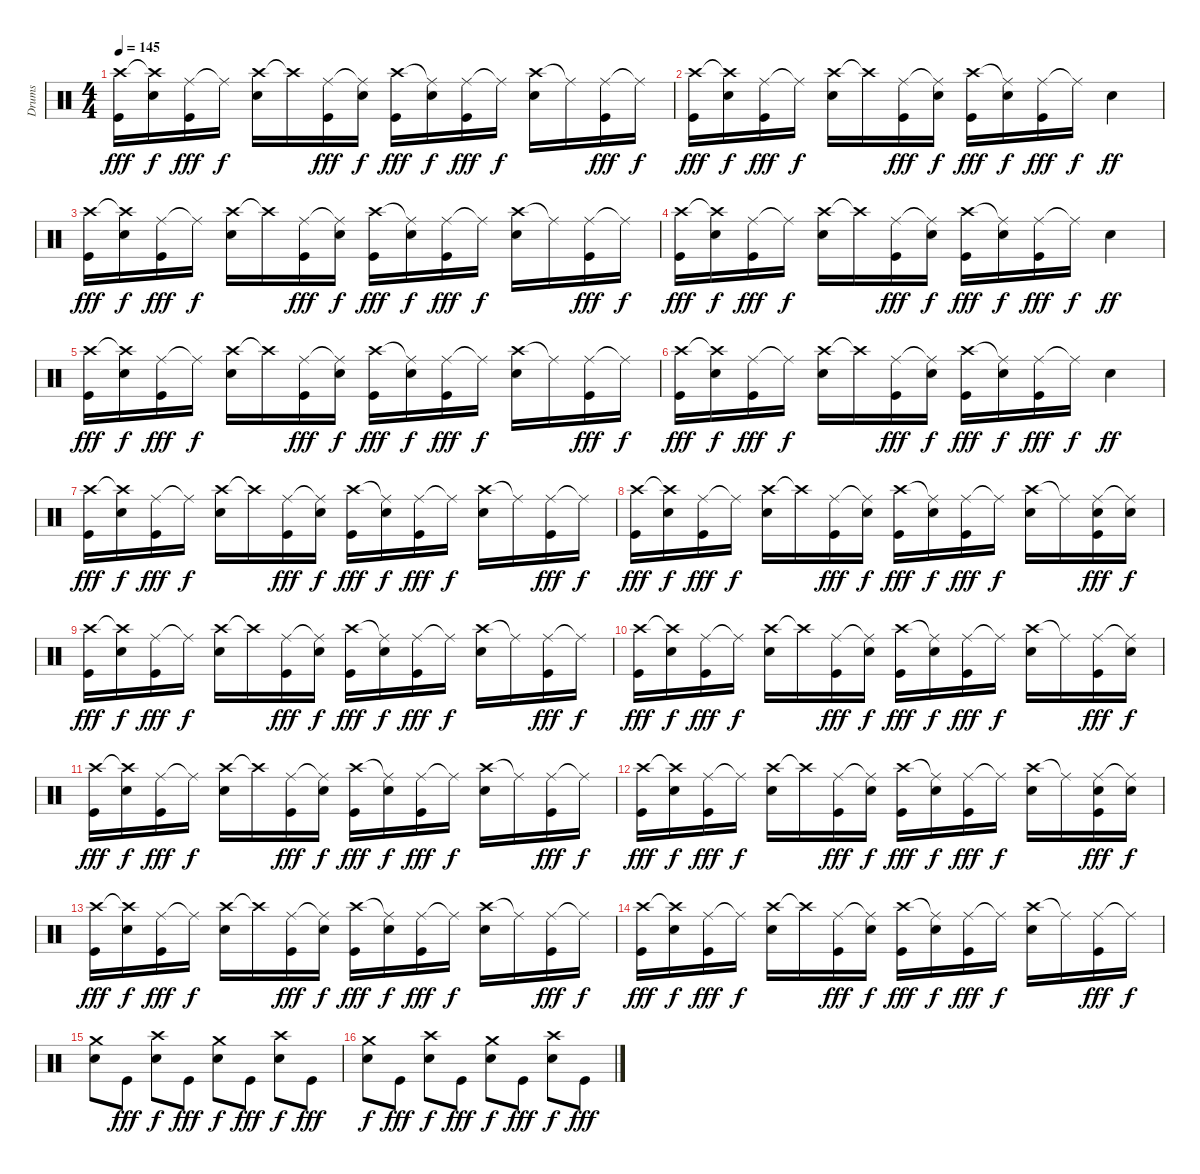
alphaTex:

\track ("Drums" "Drums") {instrument percussion}
\staff {score}
\articulation defaults
\ts (4 4)
\tempo 145
\clef neutral
\ks c
("Crash high (hit)" "Kick (hit)").16{dy fff} ("Crash high (hit)"{t} "Snare (hit) 2").16{dy f} ("Ride (middle)" "Kick (hit)").16{dy fff} "Ride (middle)"{t}.16{dy f} ("Crash high (hit)" "Snare (hit) 2").16 "Crash high (hit)"{t}.16 ("Ride (middle)" "Kick (hit)").16{dy fff} ("Ride (middle)"{t} "Snare (hit) 2").16{dy f} ("Crash high (hit)" "Kick (hit)").16{dy fff} ("Ride (middle)"{t} "Snare (hit) 2").16{dy f} ("Ride (middle)" "Kick (hit)").16{dy fff} "Ride (middle)"{t}.16{dy f} ("Crash high (hit)" "Snare (hit) 2").16 "Ride (middle)"{t}.16 ("Ride (middle)" "Kick (hit)").16{dy fff} "Ride (middle)"{t}.16{dy f} |
("Crash high (hit)" "Kick (hit)").16{dy fff} ("Crash high (hit)"{t} "Snare (hit) 2").16{dy f} ("Ride (middle)" "Kick (hit)").16{dy fff} "Ride (middle)"{t}.16{dy f} ("Crash high (hit)" "Snare (hit) 2").16 "Crash high (hit)"{t}.16 ("Ride (middle)" "Kick (hit)").16{dy fff} ("Ride (middle)"{t} "Snare (hit) 2").16{dy f} ("Crash high (hit)" "Kick (hit)").16{dy fff} ("Ride (middle)"{t} "Snare (hit) 2").16{dy f} ("Ride (middle)" "Kick (hit)").16{dy fff} "Ride (middle)"{t}.16{dy f} "Snare (hit) 2".4{dy ff} |
("Crash high (hit)" "Kick (hit)").16{dy fff} ("Crash high (hit)"{t} "Snare (hit) 2").16{dy f} ("Ride (middle)" "Kick (hit)").16{dy fff} "Ride (middle)"{t}.16{dy f} ("Crash high (hit)" "Snare (hit) 2").16 "Crash high (hit)"{t}.16 ("Ride (middle)" "Kick (hit)").16{dy fff} ("Ride (middle)"{t} "Snare (hit) 2").16{dy f} ("Crash high (hit)" "Kick (hit)").16{dy fff} ("Ride (middle)"{t} "Snare (hit) 2").16{dy f} ("Ride (middle)" "Kick (hit)").16{dy fff} "Ride (middle)"{t}.16{dy f} ("Crash high (hit)" "Snare (hit) 2").16 "Ride (middle)"{t}.16 ("Ride (middle)" "Kick (hit)").16{dy fff} "Ride (middle)"{t}.16{dy f} |
("Crash high (hit)" "Kick (hit)").16{dy fff} ("Crash high (hit)"{t} "Snare (hit) 2").16{dy f} ("Ride (middle)" "Kick (hit)").16{dy fff} "Ride (middle)"{t}.16{dy f} ("Crash high (hit)" "Snare (hit) 2").16 "Crash high (hit)"{t}.16 ("Ride (middle)" "Kick (hit)").16{dy fff} ("Ride (middle)"{t} "Snare (hit) 2").16{dy f} ("Crash high (hit)" "Kick (hit)").16{dy fff} ("Ride (middle)"{t} "Snare (hit) 2").16{dy f} ("Ride (middle)" "Kick (hit)").16{dy fff} "Ride (middle)"{t}.16{dy f} "Snare (hit) 2".4{dy ff} |
("Crash high (hit)" "Kick (hit)").16{dy fff} ("Crash high (hit)"{t} "Snare (hit) 2").16{dy f} ("Ride (middle)" "Kick (hit)").16{dy fff} "Ride (middle)"{t}.16{dy f} ("Crash high (hit)" "Snare (hit) 2").16 "Crash high (hit)"{t}.16 ("Ride (middle)" "Kick (hit)").16{dy fff} ("Ride (middle)"{t} "Snare (hit) 2").16{dy f} ("Crash high (hit)" "Kick (hit)").16{dy fff} ("Ride (middle)"{t} "Snare (hit) 2").16{dy f} ("Ride (middle)" "Kick (hit)").16{dy fff} "Ride (middle)"{t}.16{dy f} ("Crash high (hit)" "Snare (hit) 2").16 "Ride (middle)"{t}.16 ("Ride (middle)" "Kick (hit)").16{dy fff} "Ride (middle)"{t}.16{dy f} |
("Crash high (hit)" "Kick (hit)").16{dy fff} ("Crash high (hit)"{t} "Snare (hit) 2").16{dy f} ("Ride (middle)" "Kick (hit)").16{dy fff} "Ride (middle)"{t}.16{dy f} ("Crash high (hit)" "Snare (hit) 2").16 "Crash high (hit)"{t}.16 ("Ride (middle)" "Kick (hit)").16{dy fff} ("Ride (middle)"{t} "Snare (hit) 2").16{dy f} ("Crash high (hit)" "Kick (hit)").16{dy fff} ("Ride (middle)"{t} "Snare (hit) 2").16{dy f} ("Ride (middle)" "Kick (hit)").16{dy fff} "Ride (middle)"{t}.16{dy f} "Snare (hit) 2".4{dy ff} |
("Crash high (hit)" "Kick (hit)").16{dy fff} ("Crash high (hit)"{t} "Snare (hit) 2").16{dy f} ("Ride (middle)" "Kick (hit)").16{dy fff} "Ride (middle)"{t}.16{dy f} ("Crash high (hit)" "Snare (hit) 2").16 "Crash high (hit)"{t}.16 ("Ride (middle)" "Kick (hit)").16{dy fff} ("Ride (middle)"{t} "Snare (hit) 2").16{dy f} ("Crash high (hit)" "Kick (hit)").16{dy fff} ("Ride (middle)"{t} "Snare (hit) 2").16{dy f} ("Ride (middle)" "Kick (hit)").16{dy fff} "Ride (middle)"{t}.16{dy f} ("Crash high (hit)" "Snare (hit) 2").16 "Ride (middle)"{t}.16 ("Ride (middle)" "Kick (hit)").16{dy fff} "Ride (middle)"{t}.16{dy f} |
("Crash high (hit)" "Kick (hit)").16{dy fff} ("Crash high (hit)"{t} "Snare (hit) 2").16{dy f} ("Ride (middle)" "Kick (hit)").16{dy fff} "Ride (middle)"{t}.16{dy f} ("Crash high (hit)" "Snare (hit) 2").16 "Crash high (hit)"{t}.16 ("Ride (middle)" "Kick (hit)").16{dy fff} ("Ride (middle)"{t} "Snare (hit) 2").16{dy f} ("Crash high (hit)" "Kick (hit)").16{dy fff} ("Ride (middle)"{t} "Snare (hit) 2").16{dy f} ("Ride (middle)" "Kick (hit)").16{dy fff} "Ride (middle)"{t}.16{dy f} ("Crash high (hit)" "Snare (hit) 2").16 "Ride (middle)"{t}.16 ("Ride (middle)" "Snare (hit) 2" "Kick (hit)").16{dy fff} ("Ride (middle)"{t} "Snare (hit) 2").16{dy f} |
("Crash high (hit)" "Kick (hit)").16{dy fff} ("Crash high (hit)"{t} "Snare (hit) 2").16{dy f} ("Ride (middle)" "Kick (hit)").16{dy fff} "Ride (middle)"{t}.16{dy f} ("Crash high (hit)" "Snare (hit) 2").16 "Crash high (hit)"{t}.16 ("Ride (middle)" "Kick (hit)").16{dy fff} ("Ride (middle)"{t} "Snare (hit) 2").16{dy f} ("Crash high (hit)" "Kick (hit)").16{dy fff} ("Ride (middle)"{t} "Snare (hit) 2").16{dy f} ("Ride (middle)" "Kick (hit)").16{dy fff} "Ride (middle)"{t}.16{dy f} ("Crash high (hit)" "Snare (hit) 2").16 "Ride (middle)"{t}.16 ("Ride (middle)" "Kick (hit)").16{dy fff} "Ride (middle)"{t}.16{dy f} |
("Crash high (hit)" "Kick (hit)").16{dy fff} ("Crash high (hit)"{t} "Snare (hit) 2").16{dy f} ("Ride (middle)" "Kick (hit)").16{dy fff} "Ride (middle)"{t}.16{dy f} ("Crash high (hit)" "Snare (hit) 2").16 "Crash high (hit)"{t}.16 ("Ride (middle)" "Kick (hit)").16{dy fff} ("Ride (middle)"{t} "Snare (hit) 2").16{dy f} ("Crash high (hit)" "Kick (hit)").16{dy fff} ("Ride (middle)"{t} "Snare (hit) 2").16{dy f} ("Ride (middle)" "Kick (hit)").16{dy fff} "Ride (middle)"{t}.16{dy f} ("Crash high (hit)" "Snare (hit) 2").16 "Ride (middle)"{t}.16 ("Ride (middle)" "Kick (hit)").16{dy fff} ("Ride (middle)"{t} "Snare (hit) 2").16{dy f} |
("Crash high (hit)" "Kick (hit)").16{dy fff} ("Crash high (hit)"{t} "Snare (hit) 2").16{dy f} ("Ride (middle)" "Kick (hit)").16{dy fff} "Ride (middle)"{t}.16{dy f} ("Crash high (hit)" "Snare (hit) 2").16 "Crash high (hit)"{t}.16 ("Ride (middle)" "Kick (hit)").16{dy fff} ("Ride (middle)"{t} "Snare (hit) 2").16{dy f} ("Crash high (hit)" "Kick (hit)").16{dy fff} ("Ride (middle)"{t} "Snare (hit) 2").16{dy f} ("Ride (middle)" "Kick (hit)").16{dy fff} "Ride (middle)"{t}.16{dy f} ("Crash high (hit)" "Snare (hit) 2").16 "Ride (middle)"{t}.16 ("Ride (middle)" "Kick (hit)").16{dy fff} "Ride (middle)"{t}.16{dy f} |
("Crash high (hit)" "Kick (hit)").16{dy fff} ("Crash high (hit)"{t} "Snare (hit) 2").16{dy f} ("Ride (middle)" "Kick (hit)").16{dy fff} "Ride (middle)"{t}.16{dy f} ("Crash high (hit)" "Snare (hit) 2").16 "Crash high (hit)"{t}.16 ("Ride (middle)" "Kick (hit)").16{dy fff} ("Ride (middle)"{t} "Snare (hit) 2").16{dy f} ("Crash high (hit)" "Kick (hit)").16{dy fff} ("Ride (middle)"{t} "Snare (hit) 2").16{dy f} ("Ride (middle)" "Kick (hit)").16{dy fff} "Ride (middle)"{t}.16{dy f} ("Crash high (hit)" "Snare (hit) 2").16 "Ride (middle)"{t}.16 ("Ride (middle)" "Snare (hit) 2" "Kick (hit)").16{dy fff} ("Ride (middle)"{t} "Snare (hit) 2").16{dy f} |
("Crash high (hit)" "Kick (hit)").16{dy fff} ("Crash high (hit)"{t} "Snare (hit) 2").16{dy f} ("Ride (middle)" "Kick (hit)").16{dy fff} "Ride (middle)"{t}.16{dy f} ("Crash high (hit)" "Snare (hit) 2").16 "Crash high (hit)"{t}.16 ("Ride (middle)" "Kick (hit)").16{dy fff} ("Ride (middle)"{t} "Snare (hit) 2").16{dy f} ("Crash high (hit)" "Kick (hit)").16{dy fff} ("Ride (middle)"{t} "Snare (hit) 2").16{dy f} ("Ride (middle)" "Kick (hit)").16{dy fff} "Ride (middle)"{t}.16{dy f} ("Crash high (hit)" "Snare (hit) 2").16 "Ride (middle)"{t}.16 ("Ride (middle)" "Kick (hit)").16{dy fff} "Ride (middle)"{t}.16{dy f} |
("Crash high (hit)" "Kick (hit)").16{dy fff} ("Crash high (hit)"{t} "Snare (hit) 2").16{dy f} ("Ride (middle)" "Kick (hit)").16{dy fff} "Ride (middle)"{t}.16{dy f} ("Crash high (hit)" "Snare (hit) 2").16 "Crash high (hit)"{t}.16 ("Ride (middle)" "Kick (hit)").16{dy fff} ("Ride (middle)"{t} "Snare (hit) 2").16{dy f} ("Crash high (hit)" "Kick (hit)").16{dy fff} ("Ride (middle)"{t} "Snare (hit) 2").16{dy f} ("Ride (middle)" "Kick (hit)").16{dy fff} "Ride (middle)"{t}.16{dy f} ("Crash high (hit)" "Snare (hit) 2").16 "Ride (middle)"{t}.16 ("Ride (middle)" "Kick (hit)").16{dy fff} "Ride (middle)"{t}.16{dy f} |
("Crash medium (hit)" "Snare (hit) 2").8 "Kick (hit)".8{dy fff} ("Crash high (hit)" "Snare (hit) 2").8{dy f} "Kick (hit)".8{dy fff} ("Crash medium (hit)" "Snare (hit) 2").8{dy f} "Kick (hit)".8{dy fff} ("Crash high (hit)" "Snare (hit) 2").8{dy f} "Kick (hit)".8{dy fff} |
("Crash medium (hit)" "Snare (hit) 2").8{dy f} "Kick (hit)".8{dy fff} ("Crash high (hit)" "Snare (hit) 2").8{dy f} "Kick (hit)".8{dy fff} ("Crash medium (hit)" "Snare (hit) 2").8{dy f} "Kick (hit)".8{dy fff} ("Crash high (hit)" "Snare (hit) 2").8{dy f} "Kick (hit)".8{dy fff}
